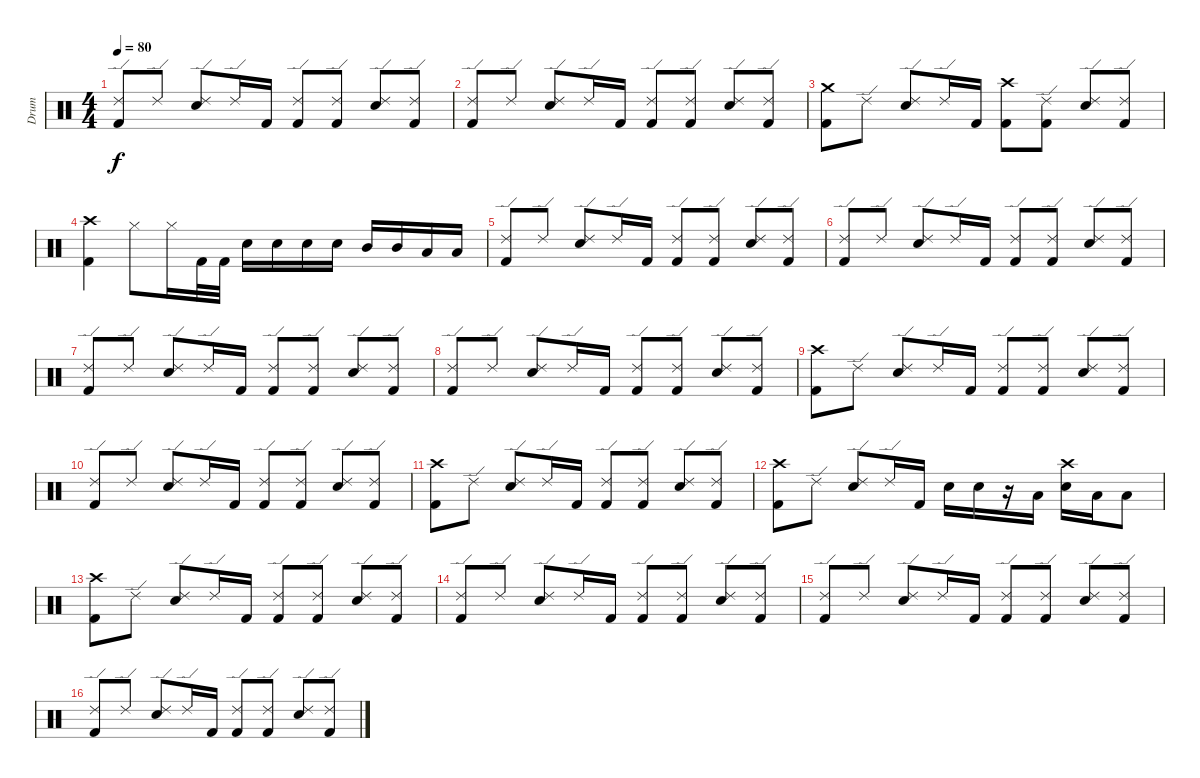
\track ("Drum" "Drum") {instrument percussion}
\staff {score}
\articulation defaults
\ts (4 4)
\tempo 80
\clef neutral
\ks c
("Ride (edge) 2" "Kick (hit) 2").8{dy f} "Ride (edge) 2".8 ("Ride (edge) 2" "Electric Snare (hit)").8 "Ride (edge) 2".16 "Kick (hit) 2".16 ("Ride (edge) 2" "Kick (hit) 2").8 ("Ride (edge) 2" "Kick (hit) 2").8 ("Ride (edge) 2" "Electric Snare (hit)").8 ("Ride (edge) 2" "Kick (hit) 2").8 |
("Ride (edge) 2" "Kick (hit) 2").8 "Ride (edge) 2".8 ("Ride (edge) 2" "Electric Snare (hit)").8 "Ride (edge) 2".16 "Kick (hit) 2".16 ("Ride (edge) 2" "Kick (hit) 2").8 ("Ride (edge) 2" "Kick (hit) 2").8 ("Ride (edge) 2" "Electric Snare (hit)").8 ("Ride (edge) 2" "Kick (hit) 2").8 |
("Crash medium (hit)" "Kick (hit) 2").8 "Ride (edge) 2".8 ("Ride (edge) 2" "Electric Snare (hit)").8 "Ride (edge) 2".16 "Kick (hit) 2".16 ("Crash high (hit)" "Kick (hit) 2").8 ("Ride (edge) 2" "Kick (hit) 2").8 ("Ride (edge) 2" "Electric Snare (hit)").8 ("Ride (edge) 2" "Kick (hit) 2").8 |
("Crash high (hit)" "Kick (hit) 2").4 "Hi-Hat (closed)".8 "Hi-Hat (closed)".16 "Kick (hit) 2".32 "Kick (hit) 2".32 "Electric Snare (hit)".16 "Electric Snare (hit)".16 "Electric Snare (hit)".16 "Electric Snare (hit)".16 "Mid Tom (hit)".16 "Mid Tom (hit)".16 "Low Tom (hit)".16 "Low Tom (hit)".16 |
("Ride (edge) 2" "Kick (hit) 2").8 "Ride (edge) 2".8 ("Ride (edge) 2" "Electric Snare (hit)").8 "Ride (edge) 2".16 "Kick (hit) 2".16 ("Ride (edge) 2" "Kick (hit) 2").8 ("Ride (edge) 2" "Kick (hit) 2").8 ("Ride (edge) 2" "Electric Snare (hit)").8 ("Ride (edge) 2" "Kick (hit) 2").8 |
("Ride (edge) 2" "Kick (hit) 2").8 "Ride (edge) 2".8 ("Ride (edge) 2" "Electric Snare (hit)").8 "Ride (edge) 2".16 "Kick (hit) 2".16 ("Ride (edge) 2" "Kick (hit) 2").8 ("Ride (edge) 2" "Kick (hit) 2").8 ("Ride (edge) 2" "Electric Snare (hit)").8 ("Ride (edge) 2" "Kick (hit) 2").8 |
("Ride (edge) 2" "Kick (hit) 2").8 "Ride (edge) 2".8 ("Ride (edge) 2" "Electric Snare (hit)").8 "Ride (edge) 2".16 "Kick (hit) 2".16 ("Ride (edge) 2" "Kick (hit) 2").8 ("Ride (edge) 2" "Kick (hit) 2").8 ("Ride (edge) 2" "Electric Snare (hit)").8 ("Ride (edge) 2" "Kick (hit) 2").8 |
("Ride (edge) 2" "Kick (hit) 2").8 "Ride (edge) 2".8 ("Ride (edge) 2" "Electric Snare (hit)").8 "Ride (edge) 2".16 "Kick (hit) 2".16 ("Ride (edge) 2" "Kick (hit) 2").8 ("Ride (edge) 2" "Kick (hit) 2").8 ("Ride (edge) 2" "Electric Snare (hit)").8 ("Ride (edge) 2" "Kick (hit) 2").8 |
("Crash high (hit)" "Kick (hit) 2").8 "Ride (edge) 2".8 ("Ride (edge) 2" "Electric Snare (hit)").8 "Ride (edge) 2".16 "Kick (hit) 2".16 ("Ride (edge) 2" "Kick (hit) 2").8 ("Ride (edge) 2" "Kick (hit) 2").8 ("Ride (edge) 2" "Electric Snare (hit)").8 ("Ride (edge) 2" "Kick (hit) 2").8 |
("Ride (edge) 2" "Kick (hit) 2").8 "Ride (edge) 2".8 ("Ride (edge) 2" "Electric Snare (hit)").8 "Ride (edge) 2".16 "Kick (hit) 2".16 ("Ride (edge) 2" "Kick (hit) 2").8 ("Ride (edge) 2" "Kick (hit) 2").8 ("Ride (edge) 2" "Electric Snare (hit)").8 ("Ride (edge) 2" "Kick (hit) 2").8 |
("Crash high (hit)" "Kick (hit) 2").8 "Ride (edge) 2".8 ("Ride (edge) 2" "Electric Snare (hit)").8 "Ride (edge) 2".16 "Kick (hit) 2".16 ("Ride (edge) 2" "Kick (hit) 2").8 ("Ride (edge) 2" "Kick (hit) 2").8 ("Ride (edge) 2" "Electric Snare (hit)").8 ("Ride (edge) 2" "Kick (hit) 2").8 |
("Crash high (hit)" "Kick (hit) 2").8 "Ride (edge) 2".8 ("Ride (edge) 2" "Electric Snare (hit)").8 "Ride (edge) 2".16 "Kick (hit) 2".16 "Electric Snare (hit)".16 "Electric Snare (hit)".16 r.16 "Low Tom (hit)".16 ("Crash high (hit)" "Electric Snare (hit)").16 "Low Tom (hit)".16 "Low Tom (hit)".8 |
("Crash high (hit)" "Kick (hit) 2").8 "Ride (edge) 2".8 ("Ride (edge) 2" "Electric Snare (hit)").8 "Ride (edge) 2".16 "Kick (hit) 2".16 ("Ride (edge) 2" "Kick (hit) 2").8 ("Ride (edge) 2" "Kick (hit) 2").8 ("Ride (edge) 2" "Electric Snare (hit)").8 ("Ride (edge) 2" "Kick (hit) 2").8 |
("Ride (edge) 2" "Kick (hit) 2").8 "Ride (edge) 2".8 ("Ride (edge) 2" "Electric Snare (hit)").8 "Ride (edge) 2".16 "Kick (hit) 2".16 ("Ride (edge) 2" "Kick (hit) 2").8 ("Ride (edge) 2" "Kick (hit) 2").8 ("Ride (edge) 2" "Electric Snare (hit)").8 ("Ride (edge) 2" "Kick (hit) 2").8 |
("Ride (edge) 2" "Kick (hit) 2").8 "Ride (edge) 2".8 ("Ride (edge) 2" "Electric Snare (hit)").8 "Ride (edge) 2".16 "Kick (hit) 2".16 ("Ride (edge) 2" "Kick (hit) 2").8 ("Ride (edge) 2" "Kick (hit) 2").8 ("Ride (edge) 2" "Electric Snare (hit)").8 ("Ride (edge) 2" "Kick (hit) 2").8 |
("Ride (edge) 2" "Kick (hit) 2").8 "Ride (edge) 2".8 ("Ride (edge) 2" "Electric Snare (hit)").8 "Ride (edge) 2".16 "Kick (hit) 2".16 ("Ride (edge) 2" "Kick (hit) 2").8 ("Ride (edge) 2" "Kick (hit) 2").8 ("Ride (edge) 2" "Electric Snare (hit)").8 ("Ride (edge) 2" "Kick (hit) 2").8
